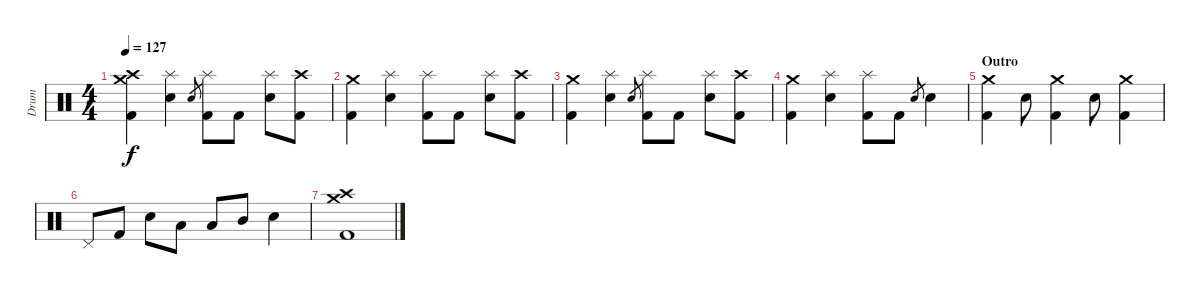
\track ("Drum" "Drum") {instrument percussion}
\staff {score}
\articulation defaults
\ts (4 4)
\tempo 127
\clef neutral
\ks c
("Kick (hit) 2" "Crash high (hit)" "Crash medium (hit)").4{dy f} ("Splash (hit)" "Electric Snare (hit)").4 "Electric Snare (hit)".8{gr} ("Splash (hit)" "Kick (hit) 2").8 "Kick (hit) 2".8 ("Splash (hit)" "Electric Snare (hit)").8 ("Kick (hit) 2" "Crash high (hit)").8 |
("Kick (hit) 2" "Crash medium (hit)").4 ("Splash (hit)" "Electric Snare (hit)").4 ("Splash (hit)" "Kick (hit) 2").8 "Kick (hit) 2".8 ("Splash (hit)" "Electric Snare (hit)").8 ("Kick (hit) 2" "Crash high (hit)").8 |
("Kick (hit) 2" "Crash medium (hit)").4 ("Splash (hit)" "Electric Snare (hit)").4 "Electric Snare (hit)".8{gr} ("Splash (hit)" "Kick (hit) 2").8 "Kick (hit) 2".8 ("Splash (hit)" "Electric Snare (hit)").8 ("Kick (hit) 2" "Crash high (hit)").8 |
("Kick (hit) 2" "Crash medium (hit)").4 ("Splash (hit)" "Electric Snare (hit)").4 ("Splash (hit)" "Kick (hit) 2").8 "Kick (hit) 2".8 "Electric Snare (hit)".8{gr} "Electric Snare (hit)".4 |
\section ("" "Outro")
("Kick (hit) 2" "Crash medium (hit)").4 "Electric Snare (hit)".8 ("Kick (hit) 2" "Crash medium (hit)").4 "Electric Snare (hit)".8 ("Kick (hit) 2" "Crash medium (hit)").4 |
"Pedal Hi-Hat (hit)".8 "Kick (hit) 2".8 "Electric Snare (hit)".8 "Low Floor Tom (hit)".8 "Low Tom (hit)".8 "Mid Tom (hit)".8 "Electric Snare (hit)".4 |
("Kick (hit) 2" "Crash high (hit)" "Crash medium (hit)").1
